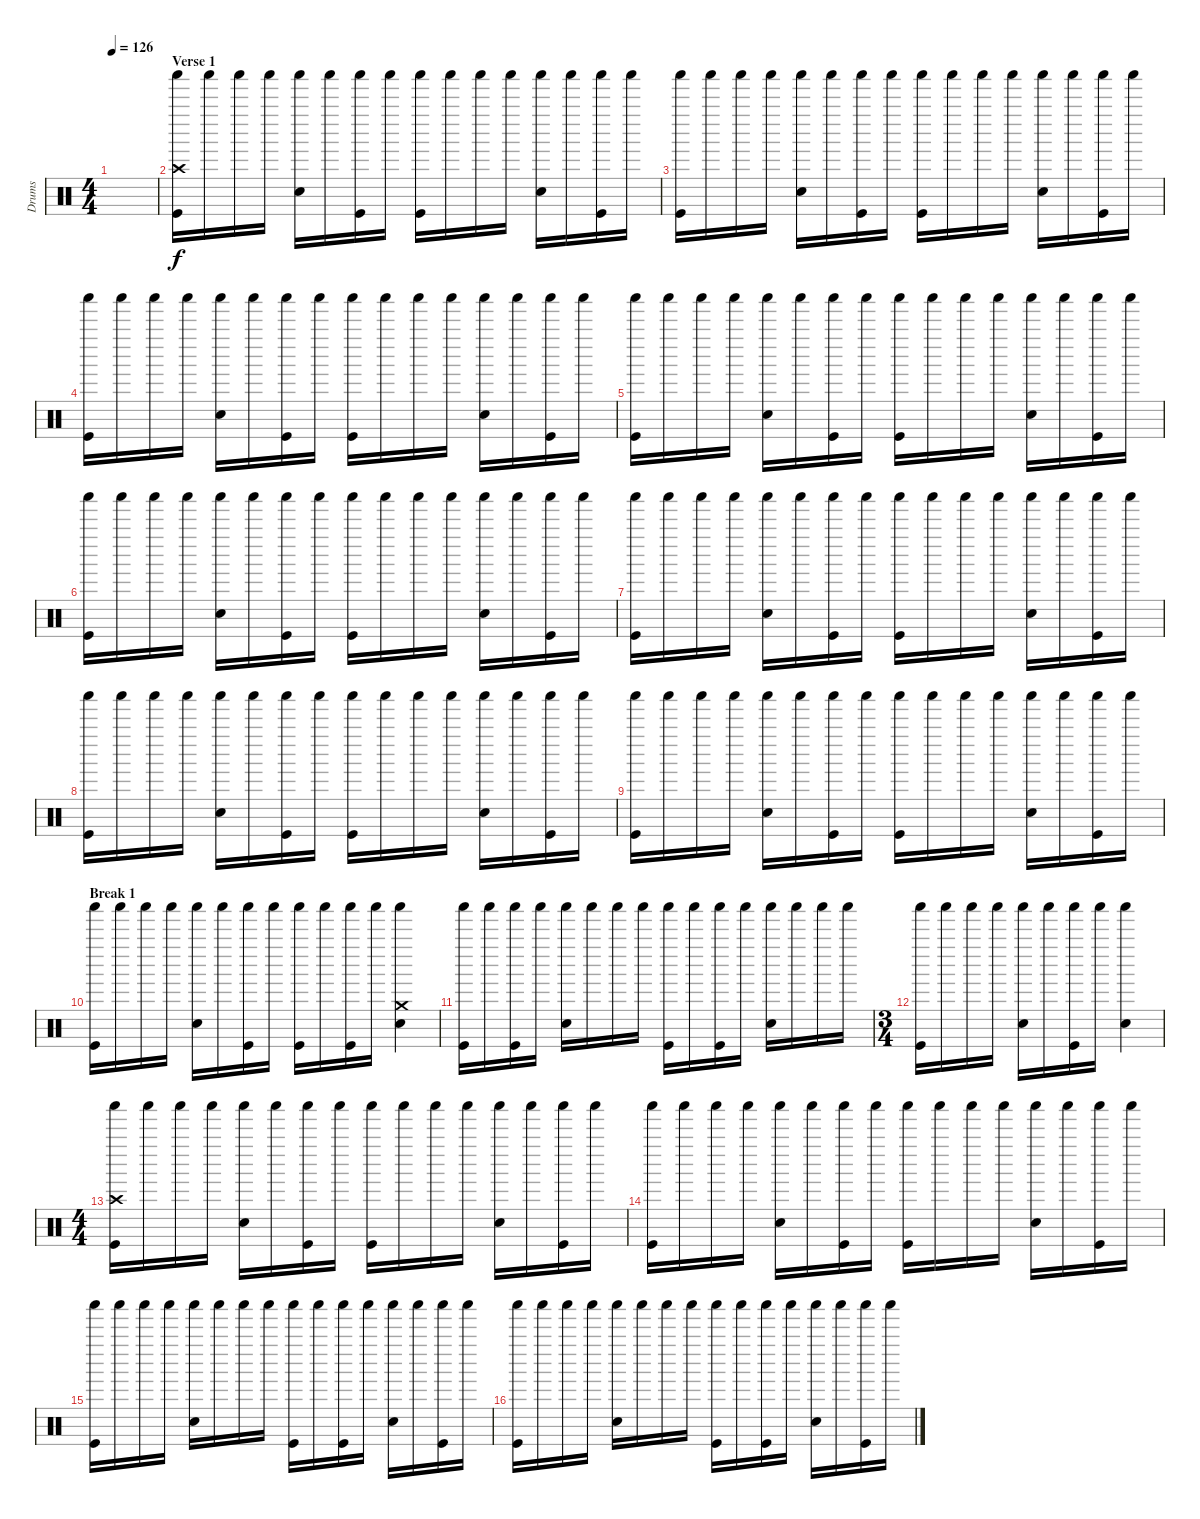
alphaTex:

\track ("Drums" "Drums") {instrument percussion}
\staff {score}
\articulation defaults
\ts (4 4)
\tempo 126
\clef neutral
\ks c
|
\section ("" "Verse 1")
("Shaker (hit)" "Crash high (hit)" "Kick (hit)").16 "Shaker (hit)".16 "Shaker (hit)".16 "Shaker (hit)".16 ("Shaker (hit)" "Snare (hit) 2").16 "Shaker (hit)".16 ("Shaker (hit)" "Kick (hit)").16 "Shaker (hit)".16 ("Shaker (hit)" "Kick (hit)").16 "Shaker (hit)".16 "Shaker (hit)".16 "Shaker (hit)".16 ("Shaker (hit)" "Snare (hit) 2").16 "Shaker (hit)".16 ("Shaker (hit)" "Kick (hit)").16 "Shaker (hit)".16 |
("Shaker (hit)" "Kick (hit)").16 "Shaker (hit)".16 "Shaker (hit)".16 "Shaker (hit)".16 ("Shaker (hit)" "Snare (hit) 2").16 "Shaker (hit)".16 ("Shaker (hit)" "Kick (hit)").16 "Shaker (hit)".16 ("Shaker (hit)" "Kick (hit)").16 "Shaker (hit)".16 "Shaker (hit)".16 "Shaker (hit)".16 ("Shaker (hit)" "Snare (hit) 2").16 "Shaker (hit)".16 ("Shaker (hit)" "Kick (hit)").16 "Shaker (hit)".16 |
("Shaker (hit)" "Kick (hit)").16 "Shaker (hit)".16 "Shaker (hit)".16 "Shaker (hit)".16 ("Shaker (hit)" "Snare (hit) 2").16 "Shaker (hit)".16 ("Shaker (hit)" "Kick (hit)").16 "Shaker (hit)".16 ("Shaker (hit)" "Kick (hit)").16 "Shaker (hit)".16 "Shaker (hit)".16 "Shaker (hit)".16 ("Shaker (hit)" "Snare (hit) 2").16 "Shaker (hit)".16 ("Shaker (hit)" "Kick (hit)").16 "Shaker (hit)".16 |
("Shaker (hit)" "Kick (hit)").16 "Shaker (hit)".16 "Shaker (hit)".16 "Shaker (hit)".16 ("Shaker (hit)" "Snare (hit) 2").16 "Shaker (hit)".16 ("Shaker (hit)" "Kick (hit)").16 "Shaker (hit)".16 ("Shaker (hit)" "Kick (hit)").16 "Shaker (hit)".16 "Shaker (hit)".16 "Shaker (hit)".16 ("Shaker (hit)" "Snare (hit) 2").16 "Shaker (hit)".16 ("Shaker (hit)" "Kick (hit)").16 "Shaker (hit)".16 |
("Shaker (hit)" "Kick (hit)").16 "Shaker (hit)".16 "Shaker (hit)".16 "Shaker (hit)".16 ("Shaker (hit)" "Snare (hit) 2").16 "Shaker (hit)".16 ("Shaker (hit)" "Kick (hit)").16 "Shaker (hit)".16 ("Shaker (hit)" "Kick (hit)").16 "Shaker (hit)".16 "Shaker (hit)".16 "Shaker (hit)".16 ("Shaker (hit)" "Snare (hit) 2").16 "Shaker (hit)".16 ("Shaker (hit)" "Kick (hit)").16 "Shaker (hit)".16 |
("Shaker (hit)" "Kick (hit)").16 "Shaker (hit)".16 "Shaker (hit)".16 "Shaker (hit)".16 ("Shaker (hit)" "Snare (hit) 2").16 "Shaker (hit)".16 ("Shaker (hit)" "Kick (hit)").16 "Shaker (hit)".16 ("Shaker (hit)" "Kick (hit)").16 "Shaker (hit)".16 "Shaker (hit)".16 "Shaker (hit)".16 ("Shaker (hit)" "Snare (hit) 2").16 "Shaker (hit)".16 ("Shaker (hit)" "Kick (hit)").16 "Shaker (hit)".16 |
("Shaker (hit)" "Kick (hit)").16 "Shaker (hit)".16 "Shaker (hit)".16 "Shaker (hit)".16 ("Shaker (hit)" "Snare (hit) 2").16 "Shaker (hit)".16 ("Shaker (hit)" "Kick (hit)").16 "Shaker (hit)".16 ("Shaker (hit)" "Kick (hit)").16 "Shaker (hit)".16 "Shaker (hit)".16 "Shaker (hit)".16 ("Shaker (hit)" "Snare (hit) 2").16 "Shaker (hit)".16 ("Shaker (hit)" "Kick (hit)").16 "Shaker (hit)".16 |
("Shaker (hit)" "Kick (hit)").16 "Shaker (hit)".16 "Shaker (hit)".16 "Shaker (hit)".16 ("Shaker (hit)" "Snare (hit) 2").16 "Shaker (hit)".16 ("Shaker (hit)" "Kick (hit)").16 "Shaker (hit)".16 ("Shaker (hit)" "Kick (hit)").16 "Shaker (hit)".16 "Shaker (hit)".16 "Shaker (hit)".16 ("Shaker (hit)" "Snare (hit) 2").16 "Shaker (hit)".16 ("Shaker (hit)" "Kick (hit)").16 "Shaker (hit)".16 |
\section ("" "Break 1")
("Shaker (hit)" "Kick (hit)").16 "Shaker (hit)".16 "Shaker (hit)".16 "Shaker (hit)".16 ("Shaker (hit)" "Snare (hit) 2").16 "Shaker (hit)".16 ("Shaker (hit)" "Kick (hit)").16 "Shaker (hit)".16 ("Shaker (hit)" "Kick (hit)").16 "Shaker (hit)".16 ("Shaker (hit)" "Kick (hit)").16 "Shaker (hit)".16 ("Shaker (hit)" "Crash medium (hit)" "Snare (hit) 2").4 |
("Shaker (hit)" "Kick (hit)").16 "Shaker (hit)".16 ("Shaker (hit)" "Kick (hit)").16 "Shaker (hit)".16 ("Shaker (hit)" "Snare (hit) 2").16 "Shaker (hit)".16 "Shaker (hit)".16 "Shaker (hit)".16 ("Shaker (hit)" "Kick (hit)").16 "Shaker (hit)".16 ("Shaker (hit)" "Kick (hit)").16 "Shaker (hit)".16 ("Shaker (hit)" "Snare (hit) 2").16 "Shaker (hit)".16 "Shaker (hit)".16 "Shaker (hit)".16 |
\ts (3 4)
("Shaker (hit)" "Kick (hit)").16 "Shaker (hit)".16 "Shaker (hit)".16 "Shaker (hit)".16 ("Shaker (hit)" "Snare (hit) 2").16 "Shaker (hit)".16 ("Shaker (hit)" "Kick (hit)").16 "Shaker (hit)".16 ("Shaker (hit)" "Snare (hit) 2").4 |
\ts (4 4)
("Shaker (hit)" "Crash high (hit)" "Kick (hit)").16 "Shaker (hit)".16 "Shaker (hit)".16 "Shaker (hit)".16 ("Shaker (hit)" "Snare (hit) 2").16 "Shaker (hit)".16 ("Shaker (hit)" "Kick (hit)").16 "Shaker (hit)".16 ("Shaker (hit)" "Kick (hit)").16 "Shaker (hit)".16 "Shaker (hit)".16 "Shaker (hit)".16 ("Shaker (hit)" "Snare (hit) 2").16 "Shaker (hit)".16 ("Shaker (hit)" "Kick (hit)").16 "Shaker (hit)".16 |
("Shaker (hit)" "Kick (hit)").16 "Shaker (hit)".16 "Shaker (hit)".16 "Shaker (hit)".16 ("Shaker (hit)" "Snare (hit) 2").16 "Shaker (hit)".16 ("Shaker (hit)" "Kick (hit)").16 "Shaker (hit)".16 ("Shaker (hit)" "Kick (hit)").16 "Shaker (hit)".16 "Shaker (hit)".16 "Shaker (hit)".16 ("Shaker (hit)" "Snare (hit) 2").16 "Shaker (hit)".16 ("Shaker (hit)" "Kick (hit)").16 "Shaker (hit)".16 |
("Shaker (hit)" "Kick (hit)").16 "Shaker (hit)".16 "Shaker (hit)".16 "Shaker (hit)".16 ("Shaker (hit)" "Snare (hit) 2").16 "Shaker (hit)".16 "Shaker (hit)".16 "Shaker (hit)".16 ("Shaker (hit)" "Kick (hit)").16 "Shaker (hit)".16 ("Shaker (hit)" "Kick (hit)").16 "Shaker (hit)".16 ("Shaker (hit)" "Snare (hit) 2").16 "Shaker (hit)".16 ("Shaker (hit)" "Kick (hit)").16 "Shaker (hit)".16 |
("Shaker (hit)" "Kick (hit)").16 "Shaker (hit)".16 "Shaker (hit)".16 "Shaker (hit)".16 ("Shaker (hit)" "Snare (hit) 2").16 "Shaker (hit)".16 "Shaker (hit)".16 "Shaker (hit)".16 ("Shaker (hit)" "Kick (hit)").16 "Shaker (hit)".16 ("Shaker (hit)" "Kick (hit)").16 "Shaker (hit)".16 ("Shaker (hit)" "Snare (hit) 2").16 "Shaker (hit)".16 ("Shaker (hit)" "Kick (hit)").16 "Shaker (hit)".16
